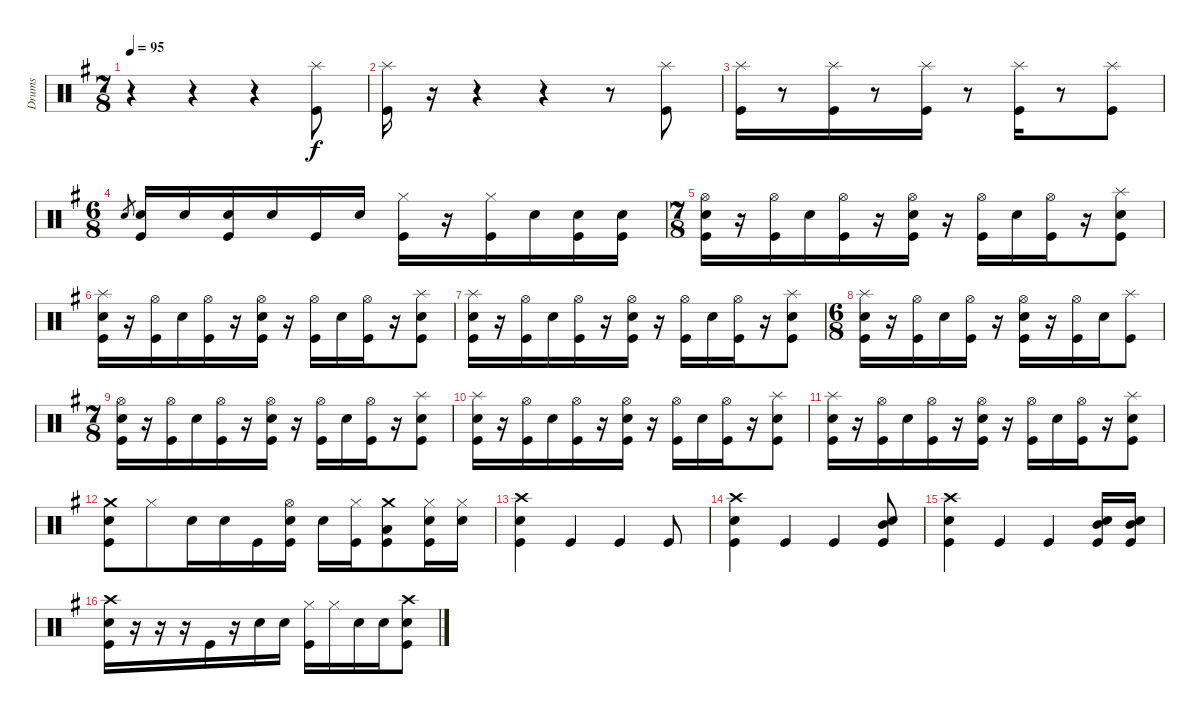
\track ("Drums" "Drums") {instrument percussion}
\staff {score}
\articulation defaults
\ts (7 8)
\tempo 95
\clef neutral
\ks eminor
r.4{dy f} r.4 r.4 ("Splash (hit)" "Kick (hit)").8 |
("Splash (hit)" "Kick (hit)").16 r.16 r.4 r.4 r.8 ("Splash (hit)" "Kick (hit)").8 |
("Splash (hit)" "Kick (hit)").16 r.8 ("Splash (hit)" "Kick (hit)").16 r.8 ("Splash (hit)" "Kick (hit)").16 r.8 ("Splash (hit)" "Kick (hit)").16 r.8 ("Splash (hit)" "Kick (hit)").8 |
\ts (6 8)
"Snare (hit) 2".8{gr} ("Snare (hit) 2" "Kick (hit)").16 "Snare (hit) 2".16 ("Snare (hit) 2" "Kick (hit)").16 "Snare (hit) 2".16 "Kick (hit)".16 "Snare (hit) 2".16 ("Hi-Hat (closed)" "Kick (hit)").16 r.16 ("Hi-Hat (closed)" "Kick (hit)").16 "Snare (hit) 2".16 ("Snare (hit) 2" "Kick (hit)").16 ("Snare (hit) 2" "Kick (hit)").16 |
\ts (7 8)
("Hi-Hat (open)" "Snare (hit) 2" "Kick (hit)").16 r.16 ("Hi-Hat (open)" "Kick (hit)").16 "Snare (hit) 2".16 ("Hi-Hat (open)" "Kick (hit)").16 r.16 ("Hi-Hat (open)" "Snare (hit) 2" "Kick (hit)").16 r.16 ("Hi-Hat (open)" "Kick (hit)").16 "Snare (hit) 2".16 ("Hi-Hat (open)" "Kick (hit)").16 r.16 ("Splash (hit)" "Snare (hit) 2" "Kick (hit)").8 |
("Splash (hit)" "Snare (hit) 2" "Kick (hit)").16 r.16 ("Hi-Hat (open)" "Kick (hit)").16 "Snare (hit) 2".16 ("Hi-Hat (open)" "Kick (hit)").16 r.16 ("Hi-Hat (open)" "Snare (hit) 2" "Kick (hit)").16 r.16 ("Hi-Hat (open)" "Kick (hit)").16 "Snare (hit) 2".16 ("Hi-Hat (open)" "Kick (hit)").16 r.16 ("Splash (hit)" "Snare (hit) 2" "Kick (hit)").8 |
("Splash (hit)" "Snare (hit) 2" "Kick (hit)").16 r.16 ("Hi-Hat (open)" "Kick (hit)").16 "Snare (hit) 2".16 ("Hi-Hat (open)" "Kick (hit)").16 r.16 ("Hi-Hat (open)" "Snare (hit) 2" "Kick (hit)").16 r.16 ("Hi-Hat (open)" "Kick (hit)").16 "Snare (hit) 2".16 ("Hi-Hat (open)" "Kick (hit)").16 r.16 ("Splash (hit)" "Snare (hit) 2" "Kick (hit)").8 |
\ts (6 8)
("Splash (hit)" "Snare (hit) 2" "Kick (hit)").16 r.16 ("Hi-Hat (open)" "Kick (hit)").16 "Snare (hit) 2".16 ("Hi-Hat (open)" "Kick (hit)").16 r.16 ("Hi-Hat (open)" "Snare (hit) 2" "Kick (hit)").16 r.16 ("Hi-Hat (open)" "Kick (hit)").16 "Snare (hit) 2".16 ("Splash (hit)" "Kick (hit)").8 |
\ts (7 8)
("Hi-Hat (open)" "Snare (hit) 2" "Kick (hit)").16 r.16 ("Hi-Hat (open)" "Kick (hit)").16 "Snare (hit) 2".16 ("Hi-Hat (open)" "Kick (hit)").16 r.16 ("Hi-Hat (open)" "Snare (hit) 2" "Kick (hit)").16 r.16 ("Hi-Hat (open)" "Kick (hit)").16 "Snare (hit) 2".16 ("Hi-Hat (open)" "Kick (hit)").16 r.16 ("Splash (hit)" "Snare (hit) 2" "Kick (hit)").8 |
("Splash (hit)" "Snare (hit) 2" "Kick (hit)").16 r.16 ("Hi-Hat (open)" "Kick (hit)").16 "Snare (hit) 2".16 ("Hi-Hat (open)" "Kick (hit)").16 r.16 ("Hi-Hat (open)" "Snare (hit) 2" "Kick (hit)").16 r.16 ("Hi-Hat (open)" "Kick (hit)").16 "Snare (hit) 2".16 ("Hi-Hat (open)" "Kick (hit)").16 r.16 ("Splash (hit)" "Snare (hit) 2" "Kick (hit)").8 |
("Splash (hit)" "Snare (hit) 2" "Kick (hit)").16 r.16 ("Hi-Hat (open)" "Kick (hit)").16 "Snare (hit) 2".16 ("Hi-Hat (open)" "Kick (hit)").16 r.16 ("Hi-Hat (open)" "Snare (hit) 2" "Kick (hit)").16 r.16 ("Hi-Hat (open)" "Kick (hit)").16 "Snare (hit) 2".16 ("Hi-Hat (open)" "Kick (hit)").16 r.16 ("Splash (hit)" "Snare (hit) 2" "Kick (hit)").8 |
("Crash medium (hit)" "Snare (hit) 2" "Kick (hit)").8 "Hi-Hat (closed)".8 "Electric Snare (hit)".16 "Electric Snare (hit)".16 "Kick (hit)".16 ("Hi-Hat (open)" "Snare (hit) 2" "Kick (hit)").16 "Electric Snare (hit)".16 ("Hi-Hat (closed)" "Kick (hit)").16 ("Crash medium (hit)" "Low Tom (hit)" "Kick (hit)").8 ("Hi-Hat (closed)" "Snare (hit) 2" "Kick (hit)").16 ("Hi-Hat (closed)" "Snare (hit) 2").16 |
("Crash high (hit)" "Snare (hit) 2" "Kick (hit)").4 "Kick (hit)".4 "Kick (hit)".4 "Kick (hit)".8 |
("Crash high (hit)" "Snare (hit) 2" "Kick (hit)").4 "Kick (hit)".4 "Kick (hit)".4 ("Mid Tom (hit)" "Snare (hit) 2" "Kick (hit)").8 |
("Crash high (hit)" "Snare (hit) 2" "Kick (hit)").4 "Kick (hit)".4 "Kick (hit)".4 ("Mid Tom (hit)" "Snare (hit) 2" "Kick (hit)").16 ("Mid Tom (hit)" "Snare (hit) 2" "Kick (hit)").16 |
("Crash high (hit)" "Snare (hit) 2" "Kick (hit)").16 r.16 r.16 r.16 "Kick (hit)".16 r.16 "Snare (hit) 2".16 "Snare (hit) 2".16 ("Hi-Hat (closed)" "Kick (hit)").16 "Hi-Hat (closed)".16 "Snare (hit) 2".16 "Snare (hit) 2".16 ("Crash high (hit)" "Snare (hit) 2" "Kick (hit)").8
